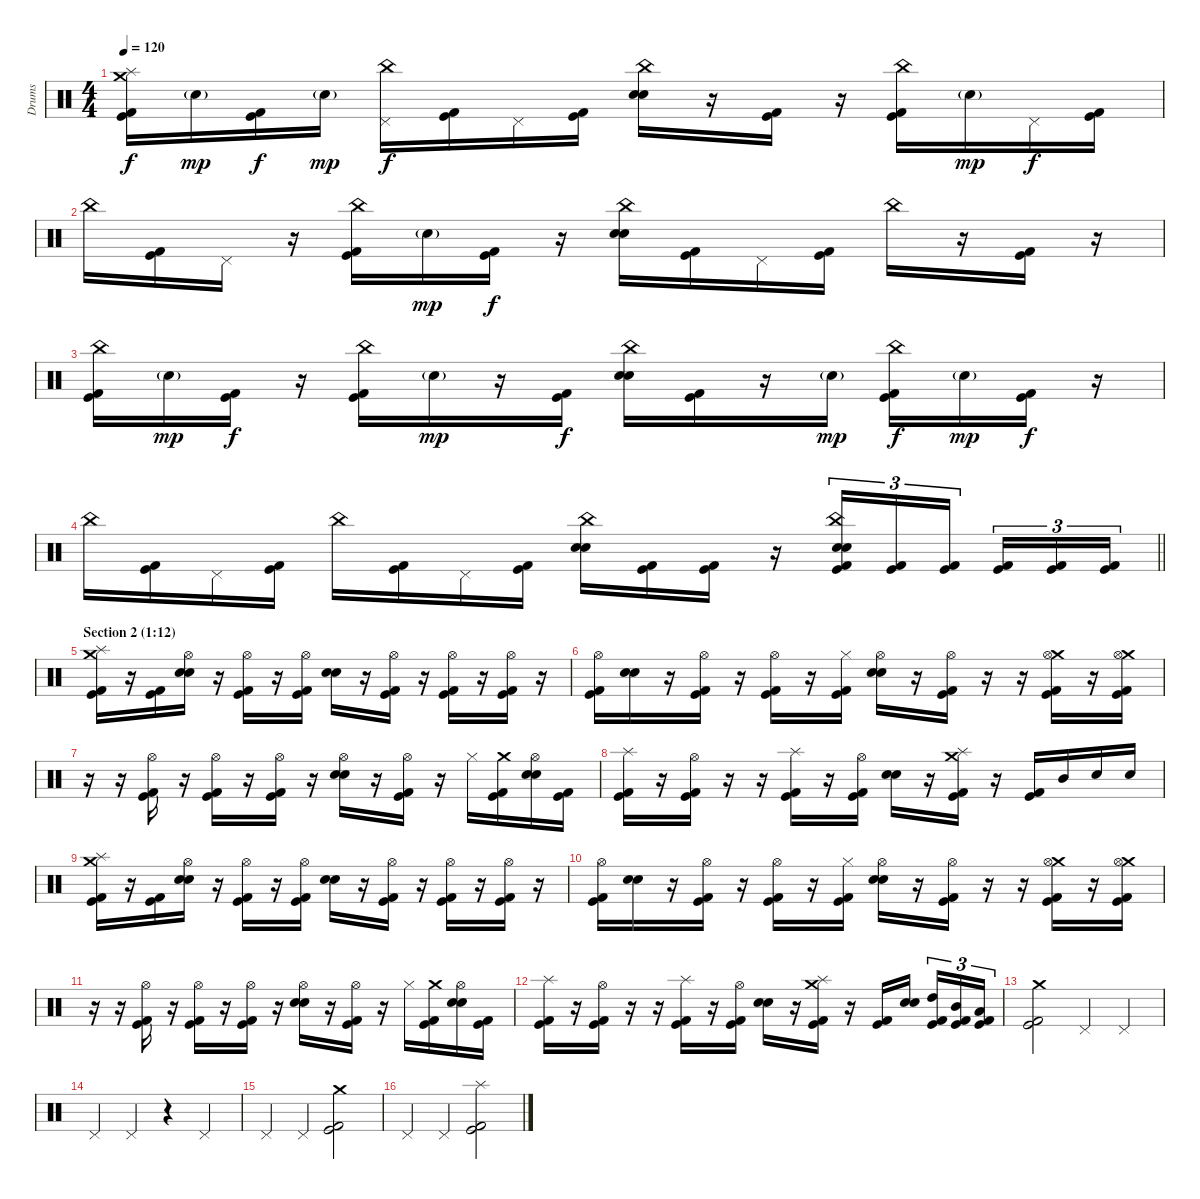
\track ("Drums" "Drums") {instrument percussion}
\staff {score}
\articulation defaults
\ts (4 4)
\tempo 120
\clef neutral
\ks c
("Crash medium (hit)" "Splash (hit)" "Kick (hit) 2" "Kick (hit)").16{dy f} "Snare (hit) 2"{g}.16{dy mp} ("Kick (hit) 2" "Kick (hit)").16{dy f} "Snare (hit) 2"{g}.16{dy mp} ("China (hit)" "Pedal Hi-Hat (hit)").16{dy f} ("Kick (hit) 2" "Kick (hit)").16 "Pedal Hi-Hat (hit)".16 ("Kick (hit) 2" "Kick (hit)").16 ("China (hit)" "Electric Snare (hit)" "Electric Snare (hit)").16 r.16 ("Kick (hit) 2" "Kick (hit)").16 r.16 ("China (hit)" "Kick (hit) 2" "Kick (hit)").16 "Snare (hit) 2"{g}.16{dy mp} "Pedal Hi-Hat (hit)".16{dy f} ("Kick (hit) 2" "Kick (hit)").16 |
"China (hit)".16 ("Kick (hit) 2" "Kick (hit)").16 "Pedal Hi-Hat (hit)".16 r.16 ("China (hit)" "Kick (hit) 2" "Kick (hit)").16 "Snare (hit) 2"{g}.16{dy mp} ("Kick (hit) 2" "Kick (hit)").16{dy f} r.16 ("China (hit)" "Electric Snare (hit)" "Electric Snare (hit)").16 ("Kick (hit) 2" "Kick (hit)").16 "Pedal Hi-Hat (hit)".16 ("Kick (hit) 2" "Kick (hit)").16 "China (hit)".16 r.16 ("Kick (hit) 2" "Kick (hit)").16 r.16 |
("China (hit)" "Kick (hit) 2" "Kick (hit)").16 "Snare (hit) 2"{g}.16{dy mp} ("Kick (hit) 2" "Kick (hit)").16{dy f} r.16 ("China (hit)" "Kick (hit) 2" "Kick (hit)").16 "Snare (hit) 2"{g}.16{dy mp} r.16 ("Kick (hit) 2" "Kick (hit)").16{dy f} ("China (hit)" "Electric Snare (hit)" "Electric Snare (hit)").16 ("Kick (hit) 2" "Kick (hit)").16 r.16 "Snare (hit) 2"{g}.16{dy mp} ("China (hit)" "Kick (hit) 2" "Kick (hit)").16{dy f} "Snare (hit) 2"{g}.16{dy mp} ("Kick (hit) 2" "Kick (hit)").16{dy f} r.16 |
\barLineRight lightlight "China (hit)".16
("Kick (hit) 2" "Kick (hit)").16 "Pedal Hi-Hat (hit)".16 ("Kick (hit) 2" "Kick (hit)").16 "China (hit)".16 ("Kick (hit) 2" "Kick (hit)").16 "Pedal Hi-Hat (hit)".16 ("Kick (hit) 2" "Kick (hit)").16 ("China (hit)" "Electric Snare (hit)" "Electric Snare (hit)").16 ("Kick (hit) 2" "Kick (hit)").16 ("Kick (hit) 2" "Kick (hit)").16 r.16 ("China (hit)" "Electric Snare (hit)" "Electric Snare (hit)" "Kick (hit) 2" "Kick (hit)").16{tu (3 2)} ("Kick (hit) 2" "Kick (hit)").16{tu (3 2)} ("Kick (hit) 2" "Kick (hit)").16{tu (3 2) beam splitsecondary} ("Kick (hit) 2" "Kick (hit)").16{tu (3 2)} ("Kick (hit) 2" "Kick (hit)").16{tu (3 2)} ("Kick (hit) 2" "Kick (hit)").16{tu (3 2)} |
\section ("" "Section 2 (1:12)")
("Crash medium (hit)" "Splash (hit)" "Kick (hit) 2" "Kick (hit)").16 r.16 ("Kick (hit) 2" "Kick (hit)").16 ("Hi-Hat (open)" "Electric Snare (hit)" "Electric Snare (hit)").16 r.16 ("Hi-Hat (open)" "Kick (hit) 2" "Kick (hit)").16 r.16 ("Hi-Hat (open)" "Kick (hit) 2" "Kick (hit)").16 ("Electric Snare (hit)" "Electric Snare (hit)").16 r.16 ("Hi-Hat (open)" "Kick (hit) 2" "Kick (hit)").16 r.16 ("Hi-Hat (open)" "Kick (hit) 2" "Kick (hit)").16 r.16 ("Hi-Hat (open)" "Kick (hit) 2" "Kick (hit)").16 r.16 |
("Hi-Hat (open)" "Kick (hit) 2" "Kick (hit)").16 ("Electric Snare (hit)" "Electric Snare (hit)").16 r.16 ("Hi-Hat (open)" "Kick (hit) 2" "Kick (hit)").16 r.16 ("Hi-Hat (open)" "Kick (hit) 2" "Kick (hit)").16 r.16 ("Hi-Hat (closed)" "Kick (hit) 2" "Kick (hit)").16 ("Hi-Hat (open)" "Electric Snare (hit)" "Electric Snare (hit)").16 r.16 ("Hi-Hat (open)" "Kick (hit) 2" "Kick (hit)").16 r.16 r.16 ("Crash medium (hit)" "Hi-Hat (open)" "Kick (hit) 2" "Kick (hit)").16 r.16 ("Crash medium (hit)" "Hi-Hat (open)" "Kick (hit) 2" "Kick (hit)").16 |
r.16 r.16 ("Hi-Hat (open)" "Kick (hit) 2" "Kick (hit)").16 r.16 ("Hi-Hat (open)" "Kick (hit) 2" "Kick (hit)").16 r.16 ("Hi-Hat (open)" "Kick (hit) 2" "Kick (hit)").16 r.16 ("Hi-Hat (open)" "Electric Snare (hit)" "Electric Snare (hit)").16 r.16 ("Hi-Hat (open)" "Kick (hit) 2" "Kick (hit)").16 r.16 "Hi-Hat (closed)".16 ("Crash medium (hit)" "Kick (hit) 2" "Kick (hit)").16 ("Hi-Hat (open)" "Electric Snare (hit)" "Electric Snare (hit)").16 ("Kick (hit) 2" "Kick (hit)").16 |
("Splash (hit)" "Kick (hit) 2" "Kick (hit)").16 r.16 ("Hi-Hat (open)" "Kick (hit) 2" "Kick (hit)").16 r.16 r.16 ("Splash (hit)" "Kick (hit) 2" "Kick (hit)").16 r.16 ("Hi-Hat (open)" "Kick (hit) 2" "Kick (hit)").16 ("Electric Snare (hit)" "Electric Snare (hit)").16 r.16 ("Splash (hit)" "Crash medium (hit)" "Kick (hit) 2" "Kick (hit)").16 r.16 ("Kick (hit) 2" "Kick (hit)").16 "Mid Tom (hit)".16 "Electric Snare (hit)".16 "Electric Snare (hit)".16 |
("Crash medium (hit)" "Splash (hit)" "Kick (hit) 2" "Kick (hit)").16 r.16 ("Kick (hit) 2" "Kick (hit)").16 ("Hi-Hat (open)" "Electric Snare (hit)" "Electric Snare (hit)").16 r.16 ("Hi-Hat (open)" "Kick (hit) 2" "Kick (hit)").16 r.16 ("Hi-Hat (open)" "Kick (hit) 2" "Kick (hit)").16 ("Electric Snare (hit)" "Electric Snare (hit)").16 r.16 ("Hi-Hat (open)" "Kick (hit) 2" "Kick (hit)").16 r.16 ("Hi-Hat (open)" "Kick (hit) 2" "Kick (hit)").16 r.16 ("Hi-Hat (open)" "Kick (hit) 2" "Kick (hit)").16 r.16 |
("Hi-Hat (open)" "Kick (hit) 2" "Kick (hit)").16 ("Electric Snare (hit)" "Electric Snare (hit)").16 r.16 ("Hi-Hat (open)" "Kick (hit) 2" "Kick (hit)").16 r.16 ("Hi-Hat (open)" "Kick (hit) 2" "Kick (hit)").16 r.16 ("Hi-Hat (closed)" "Kick (hit) 2" "Kick (hit)").16 ("Hi-Hat (open)" "Electric Snare (hit)" "Electric Snare (hit)").16 r.16 ("Hi-Hat (open)" "Kick (hit) 2" "Kick (hit)").16 r.16 r.16 ("Crash medium (hit)" "Hi-Hat (open)" "Kick (hit) 2" "Kick (hit)").16 r.16 ("Crash medium (hit)" "Hi-Hat (open)" "Kick (hit) 2" "Kick (hit)").16 |
r.16 r.16 ("Hi-Hat (open)" "Kick (hit) 2" "Kick (hit)").16 r.16 ("Hi-Hat (open)" "Kick (hit) 2" "Kick (hit)").16 r.16 ("Hi-Hat (open)" "Kick (hit) 2" "Kick (hit)").16 r.16 ("Hi-Hat (open)" "Electric Snare (hit)" "Electric Snare (hit)").16 r.16 ("Hi-Hat (open)" "Kick (hit) 2" "Kick (hit)").16 r.16 "Hi-Hat (closed)".16 ("Crash medium (hit)" "Kick (hit) 2" "Kick (hit)").16 ("Hi-Hat (open)" "Electric Snare (hit)" "Electric Snare (hit)").16 ("Kick (hit) 2" "Kick (hit)").16 |
("Splash (hit)" "Kick (hit) 2" "Kick (hit)").16 r.16 ("Hi-Hat (open)" "Kick (hit) 2" "Kick (hit)").16 r.16 r.16 ("Splash (hit)" "Kick (hit) 2" "Kick (hit)").16 r.16 ("Hi-Hat (open)" "Kick (hit) 2" "Kick (hit)").16 ("Electric Snare (hit)" "Electric Snare (hit)").16 r.16 ("Splash (hit)" "Crash medium (hit)" "Kick (hit) 2" "Kick (hit)").16 r.16 ("Kick (hit) 2" "Kick (hit)").16 ("Electric Snare (hit)" "Electric Snare (hit)").16{beam splitsecondary} ("High Tom (hit)" "Kick (hit) 2" "Kick (hit)").16{tu (3 2)} ("Mid Tom (hit)" "Kick (hit) 2" "Kick (hit)").16{tu (3 2)} ("Low Tom (hit)" "Kick (hit) 2" "Kick (hit)").16{tu (3 2)} |
("Crash medium (hit)" "Kick (hit) 2" "Kick (hit)").2 "Pedal Hi-Hat (hit)".4 "Pedal Hi-Hat (hit)".4 |
"Pedal Hi-Hat (hit)".4 "Pedal Hi-Hat (hit)".4 r.4 "Pedal Hi-Hat (hit)".4 |
"Pedal Hi-Hat (hit)".4 "Pedal Hi-Hat (hit)".4 ("Crash medium (hit)" "Kick (hit) 2" "Kick (hit)").2 |
"Pedal Hi-Hat (hit)".4 "Pedal Hi-Hat (hit)".4 ("Splash (hit)" "Kick (hit) 2" "Kick (hit)").2
